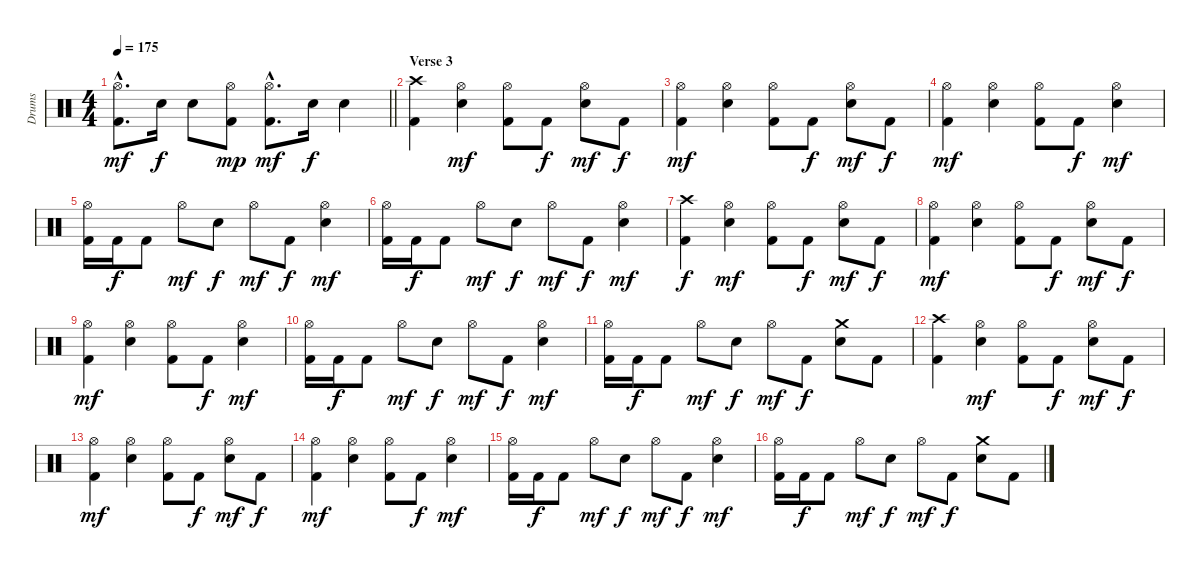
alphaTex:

\track ("Drums" "Drums") {instrument percussion}
\staff {score}
\articulation defaults
\ts (4 4)
\tempo 175
\clef neutral
\barLineRight lightlight
\ks c
("Hi-Hat (open)"{hac} "Kick (hit) 2"{hac}).8{d dy mf} "Electric Snare (hit)".16{dy f} "Electric Snare (hit)".8 ("Hi-Hat (open)" "Kick (hit) 2").8{dy mp} ("Hi-Hat (open)"{hac} "Kick (hit) 2"{hac}).8{d dy mf} "Electric Snare (hit)".16{dy f} "Electric Snare (hit)".4 |
\section ("" "Verse 3")
("Crash high (hit)" "Kick (hit) 2").4 ("Hi-Hat (open)" "Electric Snare (hit)").4{dy mf} ("Hi-Hat (open)" "Kick (hit) 2").8 "Kick (hit) 2".8{dy f} ("Hi-Hat (open)" "Electric Snare (hit)").8{dy mf} "Kick (hit) 2".8{dy f} |
("Hi-Hat (open)" "Kick (hit) 2").4{dy mf} ("Hi-Hat (open)" "Electric Snare (hit)").4 ("Hi-Hat (open)" "Kick (hit) 2").8 "Kick (hit) 2".8{dy f} ("Hi-Hat (open)" "Electric Snare (hit)").8{dy mf} "Kick (hit) 2".8{dy f} |
("Hi-Hat (open)" "Kick (hit) 2").4{dy mf} ("Hi-Hat (open)" "Electric Snare (hit)").4 ("Hi-Hat (open)" "Kick (hit) 2").8 "Kick (hit) 2".8{dy f} ("Hi-Hat (open)" "Electric Snare (hit)").4{dy mf} |
("Hi-Hat (open)" "Kick (hit) 2").16 "Kick (hit) 2".16{dy f} "Kick (hit) 2".8 "Hi-Hat (open)".8{dy mf} "Electric Snare (hit)".8{dy f} "Hi-Hat (open)".8{dy mf} "Kick (hit) 2".8{dy f} ("Hi-Hat (open)" "Electric Snare (hit)").4{dy mf} |
("Hi-Hat (open)" "Kick (hit) 2").16 "Kick (hit) 2".16{dy f} "Kick (hit) 2".8 "Hi-Hat (open)".8{dy mf} "Electric Snare (hit)".8{dy f} "Hi-Hat (open)".8{dy mf} "Kick (hit) 2".8{dy f} ("Hi-Hat (open)" "Electric Snare (hit)").4{dy mf} |
("Crash high (hit)" "Kick (hit) 2").4{dy f} ("Hi-Hat (open)" "Electric Snare (hit)").4{dy mf} ("Hi-Hat (open)" "Kick (hit) 2").8 "Kick (hit) 2".8{dy f} ("Hi-Hat (open)" "Electric Snare (hit)").8{dy mf} "Kick (hit) 2".8{dy f} |
("Hi-Hat (open)" "Kick (hit) 2").4{dy mf} ("Hi-Hat (open)" "Electric Snare (hit)").4 ("Hi-Hat (open)" "Kick (hit) 2").8 "Kick (hit) 2".8{dy f} ("Hi-Hat (open)" "Electric Snare (hit)").8{dy mf} "Kick (hit) 2".8{dy f} |
("Hi-Hat (open)" "Kick (hit) 2").4{dy mf} ("Hi-Hat (open)" "Electric Snare (hit)").4 ("Hi-Hat (open)" "Kick (hit) 2").8 "Kick (hit) 2".8{dy f} ("Hi-Hat (open)" "Electric Snare (hit)").4{dy mf} |
("Hi-Hat (open)" "Kick (hit) 2").16 "Kick (hit) 2".16{dy f} "Kick (hit) 2".8 "Hi-Hat (open)".8{dy mf} "Electric Snare (hit)".8{dy f} "Hi-Hat (open)".8{dy mf} "Kick (hit) 2".8{dy f} ("Hi-Hat (open)" "Electric Snare (hit)").4{dy mf} |
("Hi-Hat (open)" "Kick (hit) 2").16 "Kick (hit) 2".16{dy f} "Kick (hit) 2".8 "Hi-Hat (open)".8{dy mf} "Electric Snare (hit)".8{dy f} "Hi-Hat (open)".8{dy mf} "Kick (hit) 2".8{dy f} ("Crash medium (hit)" "Electric Snare (hit)").8 "Kick (hit) 2".8 |
("Crash high (hit)" "Kick (hit) 2").4 ("Hi-Hat (open)" "Electric Snare (hit)").4{dy mf} ("Hi-Hat (open)" "Kick (hit) 2").8 "Kick (hit) 2".8{dy f} ("Hi-Hat (open)" "Electric Snare (hit)").8{dy mf} "Kick (hit) 2".8{dy f} |
("Hi-Hat (open)" "Kick (hit) 2").4{dy mf} ("Hi-Hat (open)" "Electric Snare (hit)").4 ("Hi-Hat (open)" "Kick (hit) 2").8 "Kick (hit) 2".8{dy f} ("Hi-Hat (open)" "Electric Snare (hit)").8{dy mf} "Kick (hit) 2".8{dy f} |
("Hi-Hat (open)" "Kick (hit) 2").4{dy mf} ("Hi-Hat (open)" "Electric Snare (hit)").4 ("Hi-Hat (open)" "Kick (hit) 2").8 "Kick (hit) 2".8{dy f} ("Hi-Hat (open)" "Electric Snare (hit)").4{dy mf} |
("Hi-Hat (open)" "Kick (hit) 2").16 "Kick (hit) 2".16{dy f} "Kick (hit) 2".8 "Hi-Hat (open)".8{dy mf} "Electric Snare (hit)".8{dy f} "Hi-Hat (open)".8{dy mf} "Kick (hit) 2".8{dy f} ("Hi-Hat (open)" "Electric Snare (hit)").4{dy mf} |
("Hi-Hat (open)" "Kick (hit) 2").16 "Kick (hit) 2".16{dy f} "Kick (hit) 2".8 "Hi-Hat (open)".8{dy mf} "Electric Snare (hit)".8{dy f} "Hi-Hat (open)".8{dy mf} "Kick (hit) 2".8{dy f} ("Crash medium (hit)" "Electric Snare (hit)").8 "Kick (hit) 2".8
